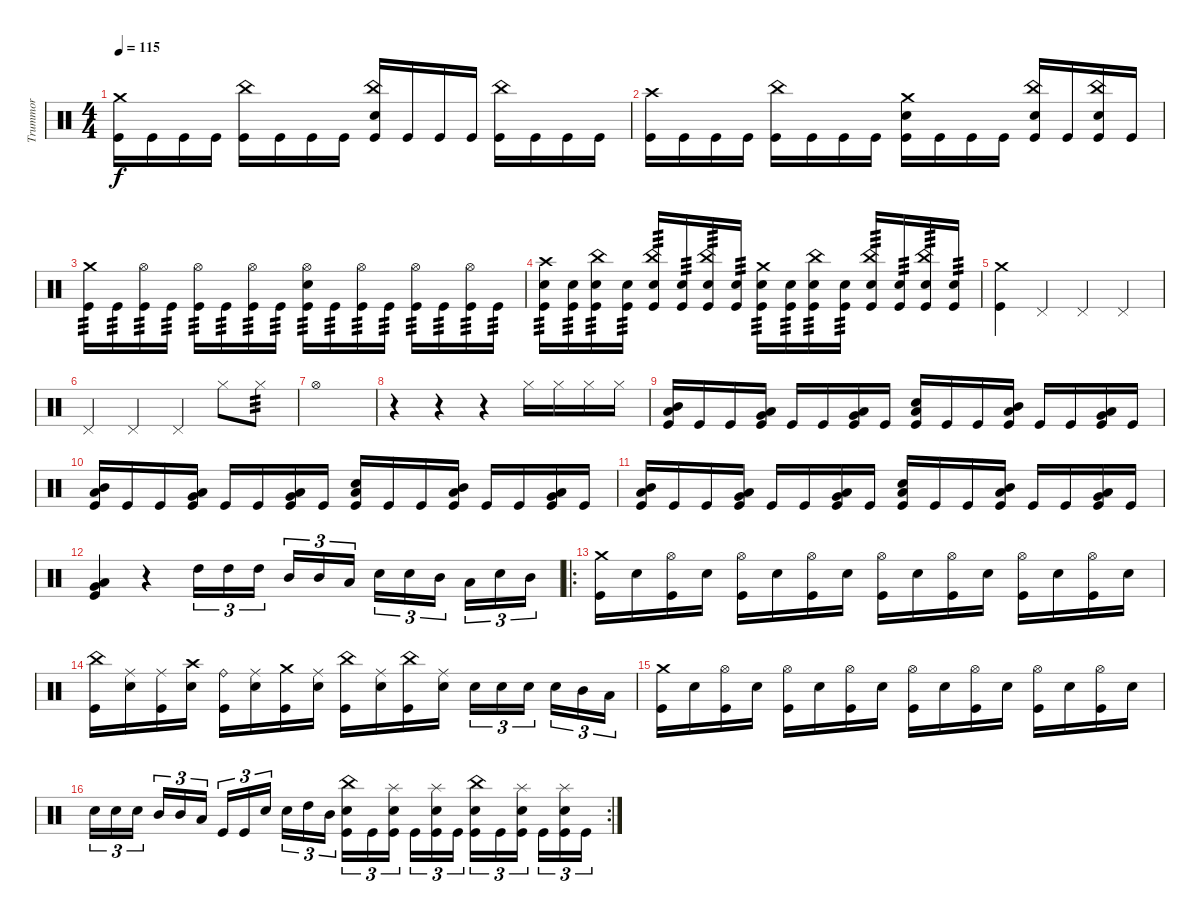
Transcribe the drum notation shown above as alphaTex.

\track ("Trummor" "Trummor") {instrument percussion}
\staff {score}
\articulation defaults
\ts (4 4)
\tempo 115
\clef neutral
\ks c
("Crash medium (hit)" "Kick (hit)").16{dy f} "Kick (hit)".16 "Kick (hit)".16 "Kick (hit)".16 ("China (hit)" "Kick (hit)").16 "Kick (hit)".16 "Kick (hit)".16 "Kick (hit)".16 ("China (hit)" "Electric Snare (hit)" "Kick (hit)").16 "Kick (hit)".16 "Kick (hit)".16 "Kick (hit)".16 ("China (hit)" "Kick (hit)").16 "Kick (hit)".16 "Kick (hit)".16 "Kick (hit)".16 |
("Crash high (hit)" "Kick (hit)").16 "Kick (hit)".16 "Kick (hit)".16 "Kick (hit)".16 ("China (hit)" "Kick (hit)").16 "Kick (hit)".16 "Kick (hit)".16 "Kick (hit)".16 ("Crash medium (hit)" "Electric Snare (hit)" "Kick (hit)").16 "Kick (hit)".16 "Kick (hit)".16 "Kick (hit)".16 ("China (hit)" "Electric Snare (hit)" "Kick (hit)").16 "Kick (hit)".16 ("China (hit)" "Electric Snare (hit)" "Kick (hit)").16 "Kick (hit)".16 |
("Crash medium (hit)" "Kick (hit)").16{tp 3} "Kick (hit)".16{tp 3} ("Hi-Hat (open)" "Kick (hit)").16{tp 3} "Kick (hit)".16{tp 3} ("Hi-Hat (open)" "Kick (hit)").16{tp 3} "Kick (hit)".16{tp 3} ("Hi-Hat (open)" "Kick (hit)").16{tp 3} "Kick (hit)".16{tp 3} ("Hi-Hat (open)" "Electric Snare (hit)" "Kick (hit)").16{tp 3} "Kick (hit)".16{tp 3} ("Hi-Hat (open)" "Kick (hit)").16{tp 3} "Kick (hit)".16{tp 3} ("Hi-Hat (open)" "Kick (hit)").16{tp 3} "Kick (hit)".16{tp 3} ("Hi-Hat (open)" "Kick (hit)").16{tp 3} "Kick (hit)".16{tp 3} |
("Crash high (hit)" "Electric Snare (hit)" "Kick (hit)").16{tp 3} ("Electric Snare (hit)" "Kick (hit)").16{tp 3} ("China (hit)" "Electric Snare (hit)" "Kick (hit)").16{tp 3} ("Electric Snare (hit)" "Kick (hit)").16{tp 3} ("China (hit)" "Electric Snare (hit)" "Kick (hit)").16{tp 3} ("Electric Snare (hit)" "Kick (hit)").16{tp 3} ("China (hit)" "Electric Snare (hit)" "Kick (hit)").16{tp 3} ("Electric Snare (hit)" "Kick (hit)").16{tp 3} ("Crash medium (hit)" "Electric Snare (hit)" "Kick (hit)").16{tp 3} ("Electric Snare (hit)" "Kick (hit)").16{tp 3} ("China (hit)" "Electric Snare (hit)" "Kick (hit)").16{tp 3} ("Electric Snare (hit)" "Kick (hit)").16{tp 3} ("China (hit)" "Electric Snare (hit)" "Kick (hit)").16{tp 3} ("Electric Snare (hit)" "Kick (hit)").16{tp 3} ("China (hit)" "Electric Snare (hit)" "Kick (hit)").16{tp 3} ("Electric Snare (hit)" "Kick (hit)").16{tp 3} |
("Crash medium (hit)" "Kick (hit)").4 "Pedal Hi-Hat (hit)".4 "Pedal Hi-Hat (hit)".4 "Pedal Hi-Hat (hit)".4 |
"Pedal Hi-Hat (hit)".4 "Pedal Hi-Hat (hit)".4 "Pedal Hi-Hat (hit)".4 "Hi-Hat (closed)".8 "Hi-Hat (closed)".8{tp 3} |
"Hi-Hat (open)".1 |
r.4 r.4 r.4 "Hi-Hat (closed)".16 "Hi-Hat (closed)".16 "Hi-Hat (closed)".16 "Hi-Hat (closed)".16 |
("Low Tom (hit)" "Mid Tom (hit)" "Kick (hit)").16 "Kick (hit)".16 "Kick (hit)".16 ("Very Low Tom (hit)" "Low Tom (hit)" "Kick (hit)").16 "Kick (hit)".16 "Kick (hit)".16 ("Very Low Tom (hit)" "Low Tom (hit)" "Kick (hit)").16 "Kick (hit)".16 ("Electric Snare (hit)" "Low Floor Tom (hit)" "Kick (hit)").16 "Kick (hit)".16 "Kick (hit)".16 ("Low Tom (hit)" "Mid Tom (hit)" "Kick (hit)").16 "Kick (hit)".16 "Kick (hit)".16 ("Very Low Tom (hit)" "Low Tom (hit)" "Kick (hit)").16 "Kick (hit)".16 |
("Low Tom (hit)" "Mid Tom (hit)" "Kick (hit)").16 "Kick (hit)".16 "Kick (hit)".16 ("Very Low Tom (hit)" "Low Tom (hit)" "Kick (hit)").16 "Kick (hit)".16 "Kick (hit)".16 ("Very Low Tom (hit)" "Low Tom (hit)" "Kick (hit)").16 "Kick (hit)".16 ("Electric Snare (hit)" "Low Floor Tom (hit)" "Kick (hit)").16 "Kick (hit)".16 "Kick (hit)".16 ("Low Tom (hit)" "Mid Tom (hit)" "Kick (hit)").16 "Kick (hit)".16 "Kick (hit)".16 ("Very Low Tom (hit)" "Low Tom (hit)" "Kick (hit)").16 "Kick (hit)".16 |
("Low Tom (hit)" "Mid Tom (hit)" "Kick (hit)").16 "Kick (hit)".16 "Kick (hit)".16 ("Very Low Tom (hit)" "Low Tom (hit)" "Kick (hit)").16 "Kick (hit)".16 "Kick (hit)".16 ("Very Low Tom (hit)" "Low Tom (hit)" "Kick (hit)").16 "Kick (hit)".16 ("Electric Snare (hit)" "Low Floor Tom (hit)" "Kick (hit)").16 "Kick (hit)".16 "Kick (hit)".16 ("Low Tom (hit)" "Mid Tom (hit)" "Kick (hit)").16 "Kick (hit)".16 "Kick (hit)".16 ("Very Low Tom (hit)" "Low Tom (hit)" "Kick (hit)").16 "Kick (hit)".16 |
("Low Floor Tom (hit)" "Very Low Tom (hit)" "Kick (hit)").4 r.4 "High Tom (hit)".16{tu (3 2)} "High Tom (hit)".16{tu (3 2)} "High Tom (hit)".16{tu (3 2) beam splitsecondary} "Mid Tom (hit)".16{tu (3 2)} "Mid Tom (hit)".16{tu (3 2)} "Low Tom (hit)".16{tu (3 2)} "Electric Snare (hit)".16{tu (3 2)} "Electric Snare (hit)".16{tu (3 2)} "Mid Tom (hit)".16{tu (3 2) beam splitsecondary} "Low Tom (hit)".16{tu (3 2)} "Electric Snare (hit)".16{tu (3 2)} "Mid Tom (hit)".16{tu (3 2)} |
\ro
("Crash medium (hit)" "Kick (hit)").16 "Electric Snare (hit)".16 ("Hi-Hat (open)" "Kick (hit)").16 "Electric Snare (hit)".16 ("Hi-Hat (open)" "Kick (hit)").16 "Electric Snare (hit)".16 ("Hi-Hat (open)" "Kick (hit)").16 "Electric Snare (hit)".16 ("Hi-Hat (open)" "Kick (hit)").16 "Electric Snare (hit)".16 ("Hi-Hat (open)" "Kick (hit)").16 "Electric Snare (hit)".16 ("Hi-Hat (open)" "Kick (hit)").16 "Electric Snare (hit)".16 ("Hi-Hat (open)" "Kick (hit)").16 "Electric Snare (hit)".16 |
("China (hit)" "Kick (hit)").16 ("Ride (middle)" "Electric Snare (hit)").16 ("Ride (middle)" "Kick (hit)").16 ("Crash high (hit)" "Electric Snare (hit)").16 ("Ride (bell)" "Kick (hit)").16 ("Ride (middle)" "Electric Snare (hit)").16 ("Crash medium (hit)" "Kick (hit)").16 ("Ride (middle)" "Electric Snare (hit)").16 ("China (hit)" "Kick (hit)").16 ("Ride (middle)" "Electric Snare (hit)").16 ("China (hit)" "Kick (hit)").16 ("Ride (middle)" "Electric Snare (hit)").16 "Electric Snare (hit)".16{tu (3 2)} "Electric Snare (hit)".16{tu (3 2)} "Electric Snare (hit)".16{tu (3 2) beam splitsecondary} "Electric Snare (hit)".16{tu (3 2)} "Mid Tom (hit)".16{tu (3 2)} "Low Tom (hit)".16{tu (3 2)} |
("Crash medium (hit)" "Kick (hit)").16 "Electric Snare (hit)".16 ("Hi-Hat (open)" "Kick (hit)").16 "Electric Snare (hit)".16 ("Hi-Hat (open)" "Kick (hit)").16 "Electric Snare (hit)".16 ("Hi-Hat (open)" "Kick (hit)").16 "Electric Snare (hit)".16 ("Hi-Hat (open)" "Kick (hit)").16 "Electric Snare (hit)".16 ("Hi-Hat (open)" "Kick (hit)").16 "Electric Snare (hit)".16 ("Hi-Hat (open)" "Kick (hit)").16 "Electric Snare (hit)".16 ("Hi-Hat (open)" "Kick (hit)").16 "Electric Snare (hit)".16 |
\rc 2 "Electric Snare (hit)".16{tu (3 2)} "Electric Snare (hit)".16{tu (3 2)} "Electric Snare (hit)".16{tu (3 2) beam splitsecondary} "Mid Tom (hit)".16{tu (3 2)} "Mid Tom (hit)".16{tu (3 2)} "Low Tom (hit)".16{tu (3 2)} "Kick (hit)".16{tu (3 2)} "Kick (hit)".16{tu (3 2)} "Electric Snare (hit)".16{tu (3 2) beam splitsecondary} "Electric Snare (hit)".16{tu (3 2)} "High Tom (hit)".16{tu (3 2)} "Mid Tom (hit)".16{tu (3 2)}
("China (hit)" "Electric Snare (hit)" "Kick (hit)").16{tu (3 2)} "Kick (hit)".16{tu (3 2)} ("Splash (hit)" "Electric Snare (hit)" "Kick (hit)").16{tu (3 2) beam splitsecondary} "Kick (hit)".16{tu (3 2)} ("Splash (hit)" "Electric Snare (hit)" "Kick (hit)").16{tu (3 2)} "Kick (hit)".16{tu (3 2)} ("China (hit)" "Electric Snare (hit)" "Kick (hit)").16{tu (3 2)} "Kick (hit)".16{tu (3 2)} ("Splash (hit)" "Electric Snare (hit)" "Kick (hit)").16{tu (3 2) beam splitsecondary} "Kick (hit)".16{tu (3 2)} ("Splash (hit)" "Electric Snare (hit)" "Kick (hit)").16{tu (3 2)} "Kick (hit)".16{tu (3 2)}
